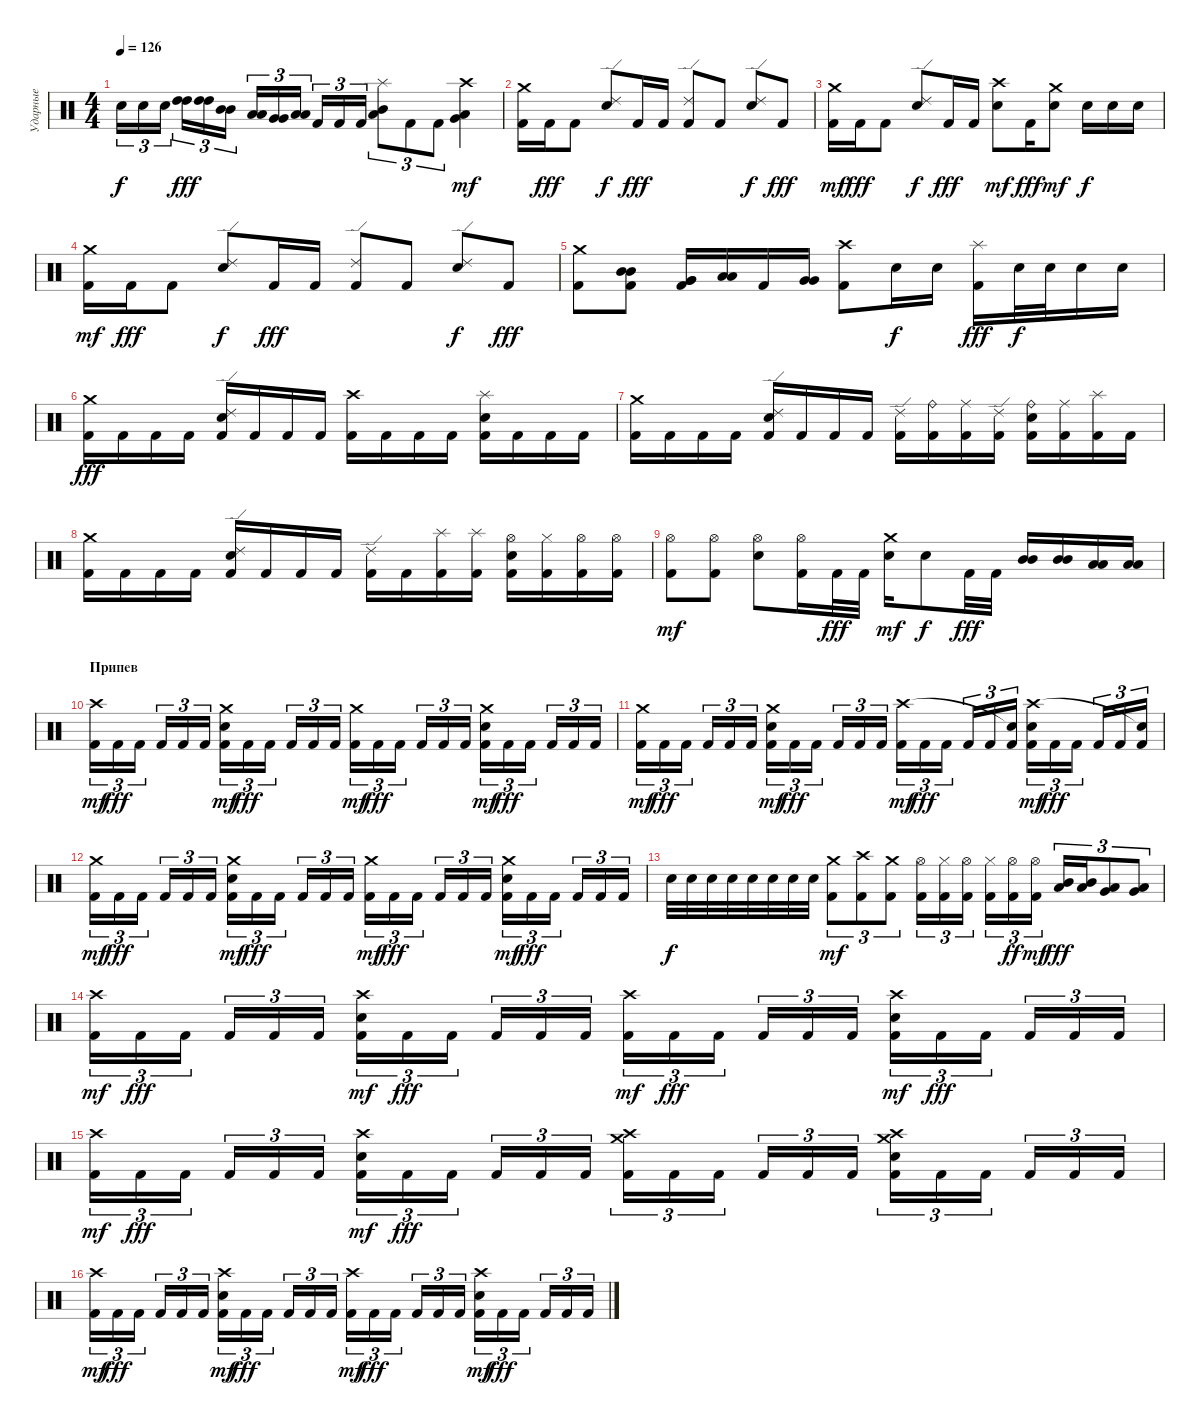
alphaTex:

\track ("Ударные" "Ударные") {instrument percussion}
\staff {score}
\articulation defaults
\ts (4 4)
\tempo 126
\clef neutral
\ks c "Electric Snare (hit)".16{tu (3 2) dy f} "Electric Snare (hit)".16{tu (3 2)} "Electric Snare (hit)".16{tu (3 2)}
("High Tom (hit)" "High Tom (hit)").16{tu (3 2) dy fff} ("High Tom (hit)" "High Tom (hit)").16{tu (3 2)} ("Mid Tom (hit)" "Mid Tom (hit)").16{tu (3 2)} ("Low Tom (hit)" "Low Tom (hit)").16{tu (3 2)} ("Very Low Tom (hit)" "Very Low Tom (hit)").16{tu (3 2)} ("Low Floor Tom (hit)" "Low Floor Tom (hit)").16{tu (3 2)} "Kick (hit) 2".16{tu (3 2)} "Kick (hit) 2".16{tu (3 2)} "Kick (hit) 2".16{tu (3 2)} ("Low Tom (hit)" "Mid Tom (hit)" "Splash (hit)").8{tu (3 2)} "Kick (hit) 2".8{tu (3 2)} "Kick (hit) 2".8{tu (3 2)} ("Very Low Tom (hit)" "Low Tom (hit)" "Crash high (hit)").4{dy mf} |
("Kick (hit) 2" "Crash medium (hit)").16 "Kick (hit) 2".16{dy fff} "Kick (hit) 2".8 ("Electric Snare (hit)" "Ride (edge) 2").8{dy f} "Kick (hit) 2".16{dy fff} "Kick (hit) 2".16 ("Kick (hit) 2" "Ride (edge) 2").8 "Kick (hit) 2".8 ("Electric Snare (hit)" "Ride (edge) 2").8{dy f} "Kick (hit) 2".8{dy fff} |
("Kick (hit) 2" "Crash medium (hit)").16{dy mf} "Kick (hit) 2".16{dy fff} "Kick (hit) 2".8 ("Electric Snare (hit)" "Ride (edge) 2").8{dy f} "Kick (hit) 2".16{dy fff} "Kick (hit) 2".16 ("Crash high (hit)" "Electric Snare (hit)").8{dy mf} "Kick (hit) 2".16{dy fff} ("Crash medium (hit)" "Electric Snare (hit)").8{dy mf} "Electric Snare (hit)".16{dy f} "Electric Snare (hit)".16 "Electric Snare (hit)".16 |
("Kick (hit) 2" "Crash medium (hit)").16{dy mf} "Kick (hit) 2".16{dy fff} "Kick (hit) 2".8 ("Electric Snare (hit)" "Ride (edge) 2").8{dy f} "Kick (hit) 2".16{dy fff} "Kick (hit) 2".16 ("Kick (hit) 2" "Ride (edge) 2").8 "Kick (hit) 2".8 ("Electric Snare (hit)" "Ride (edge) 2").8{dy f} "Kick (hit) 2".8{dy fff} |
("Crash medium (hit)" "Kick (hit) 2").8 ("Mid Tom (hit)" "Mid Tom (hit)" "Kick (hit) 2").8 ("Very Low Tom (hit)" "Very Low Tom (hit)" "Kick (hit) 2").16 ("Low Tom (hit)" "Low Tom (hit)").16 "Kick (hit) 2".16 ("Very Low Tom (hit)" "Very Low Tom (hit)").16 ("Crash high (hit)" "Kick (hit) 2").8 "Electric Snare (hit)".16{dy f} "Electric Snare (hit)".16 ("Splash (hit)" "Kick (hit) 2").16{dy fff} "Electric Snare (hit)".32{dy f} "Electric Snare (hit)".32 "Electric Snare (hit)".16 "Electric Snare (hit)".16 |
("Crash medium (hit)" "Kick (hit) 2").16{dy fff} "Kick (hit) 2".16 "Kick (hit) 2".16 "Kick (hit) 2".16 ("Ride (edge) 2" "Electric Snare (hit)" "Kick (hit) 2").16 "Kick (hit) 2".16 "Kick (hit) 2".16 "Kick (hit) 2".16 ("Crash high (hit)" "Kick (hit) 2").16 "Kick (hit) 2".16 "Kick (hit) 2".16 "Kick (hit) 2".16 ("Splash (hit)" "Electric Snare (hit)" "Kick (hit) 2").16 "Kick (hit) 2".16 "Kick (hit) 2".16 "Kick (hit) 2".16 |
("Crash medium (hit)" "Kick (hit) 2").16 "Kick (hit) 2".16 "Kick (hit) 2".16 "Kick (hit) 2".16 ("Ride (edge) 2" "Electric Snare (hit)" "Kick (hit) 2").16 "Kick (hit) 2".16 "Kick (hit) 2".16 "Kick (hit) 2".16 ("Ride (edge) 2" "Kick (hit) 2").16 ("Ride (bell)" "Kick (hit) 2").16 ("Ride (middle)" "Kick (hit) 2").16 ("Ride (edge) 2" "Kick (hit) 2").16 ("Ride (bell)" "Electric Snare (hit)" "Kick (hit) 2").16 ("Ride (middle)" "Kick (hit) 2").16 ("Splash (hit)" "Kick (hit) 2").16 "Kick (hit) 2".16 |
("Crash medium (hit)" "Kick (hit) 2").16 "Kick (hit) 2".16 "Kick (hit) 2".16 "Kick (hit) 2".16 ("Ride (edge) 2" "Electric Snare (hit)" "Kick (hit) 2").16 "Kick (hit) 2".16 "Kick (hit) 2".16 "Kick (hit) 2".16 ("Ride (edge) 2" "Kick (hit) 2").16 "Kick (hit) 2".16 ("Splash (hit)" "Kick (hit) 2").16 ("Splash (hit)" "Kick (hit) 2").16 ("Hi-Hat (open)" "Electric Snare (hit)" "Kick (hit) 2").16 ("Hi-Hat (closed)" "Kick (hit) 2").16 ("Hi-Hat (open)" "Kick (hit) 2").16 ("Hi-Hat (open)" "Kick (hit) 2").16 |
("Kick (hit) 2" "Hi-Hat (open)").8{dy mf} ("Kick (hit) 2" "Hi-Hat (open)").8 ("Electric Snare (hit)" "Hi-Hat (open)").8 ("Kick (hit) 2" "Hi-Hat (open)").16 "Kick (hit) 2".32{dy fff} "Kick (hit) 2".32 ("Electric Snare (hit)" "Crash medium (hit)").16{dy mf} "Electric Snare (hit)".8{dy f} "Kick (hit) 2".32{dy fff} "Kick (hit) 2".32 ("Mid Tom (hit)" "Mid Tom (hit)").16 ("Mid Tom (hit)" "Mid Tom (hit)").16 ("Low Tom (hit)" "Low Tom (hit)").16 ("Low Tom (hit)" "Low Tom (hit)").16 |
\section ("" "Припев")
("Kick (hit) 2" "Crash high (hit)").16{tu (3 2) dy mf} "Kick (hit) 2".16{tu (3 2) dy fff} "Kick (hit) 2".16{tu (3 2)} "Kick (hit) 2".16{tu (3 2)} "Kick (hit) 2".16{tu (3 2)} "Kick (hit) 2".16{tu (3 2)} ("Kick (hit) 2" "Crash medium (hit)" "Electric Snare (hit)").16{tu (3 2) dy mf} "Kick (hit) 2".16{tu (3 2) dy fff} "Kick (hit) 2".16{tu (3 2)} "Kick (hit) 2".16{tu (3 2)} "Kick (hit) 2".16{tu (3 2)} "Kick (hit) 2".16{tu (3 2)} ("Kick (hit) 2" "Crash medium (hit)").16{tu (3 2) dy mf} "Kick (hit) 2".16{tu (3 2) dy fff} "Kick (hit) 2".16{tu (3 2)} "Kick (hit) 2".16{tu (3 2)} "Kick (hit) 2".16{tu (3 2)} "Kick (hit) 2".16{tu (3 2)} ("Kick (hit) 2" "Crash medium (hit)" "Electric Snare (hit)").16{tu (3 2) dy mf} "Kick (hit) 2".16{tu (3 2) dy fff} "Kick (hit) 2".16{tu (3 2)} "Kick (hit) 2".16{tu (3 2)} "Kick (hit) 2".16{tu (3 2)} "Kick (hit) 2".16{tu (3 2)} |
("Kick (hit) 2" "Crash medium (hit)").16{tu (3 2) dy mf} "Kick (hit) 2".16{tu (3 2) dy fff} "Kick (hit) 2".16{tu (3 2)} "Kick (hit) 2".16{tu (3 2)} "Kick (hit) 2".16{tu (3 2)} "Kick (hit) 2".16{tu (3 2)} ("Kick (hit) 2" "Crash medium (hit)" "Electric Snare (hit)").16{tu (3 2) dy mf} "Kick (hit) 2".16{tu (3 2) dy fff} "Kick (hit) 2".16{tu (3 2)} "Kick (hit) 2".16{tu (3 2)} "Kick (hit) 2".16{tu (3 2)} "Kick (hit) 2".16{tu (3 2)} ("Kick (hit) 2" "Crash high (hit)").16{tu (3 2) dy mf} "Kick (hit) 2".16{tu (3 2) dy fff} "Kick (hit) 2".16{tu (3 2)} "Kick (hit) 2".16{tu (3 2)} "Kick (hit) 2".16{tu (3 2)} ("Kick (hit) 2" "Snare (hit)"{t}).16{tu (3 2)} ("Kick (hit) 2" "Crash high (hit)" "Electric Snare (hit)").16{tu (3 2) dy mf} "Kick (hit) 2".16{tu (3 2) dy fff} "Kick (hit) 2".16{tu (3 2)} "Kick (hit) 2".16{tu (3 2)} "Kick (hit) 2".16{tu (3 2)} ("Kick (hit) 2" "Snare (hit)"{t}).16{tu (3 2)} |
("Kick (hit) 2" "Crash medium (hit)").16{tu (3 2) dy mf} "Kick (hit) 2".16{tu (3 2) dy fff} "Kick (hit) 2".16{tu (3 2)} "Kick (hit) 2".16{tu (3 2)} "Kick (hit) 2".16{tu (3 2)} "Kick (hit) 2".16{tu (3 2)} ("Kick (hit) 2" "Crash medium (hit)" "Electric Snare (hit)").16{tu (3 2) dy mf} "Kick (hit) 2".16{tu (3 2) dy fff} "Kick (hit) 2".16{tu (3 2)} "Kick (hit) 2".16{tu (3 2)} "Kick (hit) 2".16{tu (3 2)} "Kick (hit) 2".16{tu (3 2)} ("Kick (hit) 2" "Crash medium (hit)").16{tu (3 2) dy mf} "Kick (hit) 2".16{tu (3 2) dy fff} "Kick (hit) 2".16{tu (3 2)} "Kick (hit) 2".16{tu (3 2)} "Kick (hit) 2".16{tu (3 2)} "Kick (hit) 2".16{tu (3 2)} ("Kick (hit) 2" "Crash medium (hit)" "Electric Snare (hit)").16{tu (3 2) dy mf} "Kick (hit) 2".16{tu (3 2) dy fff} "Kick (hit) 2".16{tu (3 2)} "Kick (hit) 2".16{tu (3 2)} "Kick (hit) 2".16{tu (3 2)} "Kick (hit) 2".16{tu (3 2)} |
"Electric Snare (hit)".32{dy f} "Electric Snare (hit)".32 "Electric Snare (hit)".32 "Electric Snare (hit)".32 "Electric Snare (hit)".32 "Electric Snare (hit)".32 "Electric Snare (hit)".32 "Electric Snare (hit)".32 ("Kick (hit) 2" "Crash medium (hit)").8{tu (3 2) dy mf} ("Kick (hit) 2" "Crash high (hit)").8{tu (3 2)} ("Kick (hit) 2" "Crash medium (hit)").8{tu (3 2)} ("Kick (hit) 2" "Hi-Hat (open)").16{tu (3 2)} ("Kick (hit) 2" "Hi-Hat (closed)").16{tu (3 2)} ("Kick (hit) 2" "Hi-Hat (open)").16{tu (3 2)} ("Kick (hit) 2" "Hi-Hat (closed)").16{tu (3 2)} ("Kick (hit) 2" "Hi-Hat (open)").16{tu (3 2) dy ff} ("Kick (hit) 2" "Hi-Hat (open)").16{tu (3 2) dy mf} ("Mid Tom (hit)" "Low Tom (hit)").16{tu (3 2) dy fff} ("Mid Tom (hit)" "Low Tom (hit)").16{tu (3 2)} ("Low Tom (hit)" "Very Low Tom (hit)").8{tu (3 2)} ("Very Low Tom (hit)" "Low Floor Tom (hit)").8{tu (3 2)} |
("Kick (hit) 2" "Crash high (hit)").16{tu (3 2) dy mf} "Kick (hit) 2".16{tu (3 2) dy fff} "Kick (hit) 2".16{tu (3 2)} "Kick (hit) 2".16{tu (3 2)} "Kick (hit) 2".16{tu (3 2)} "Kick (hit) 2".16{tu (3 2)} ("Kick (hit) 2" "Crash high (hit)" "Electric Snare (hit)").16{tu (3 2) dy mf} "Kick (hit) 2".16{tu (3 2) dy fff} "Kick (hit) 2".16{tu (3 2)} "Kick (hit) 2".16{tu (3 2)} "Kick (hit) 2".16{tu (3 2)} "Kick (hit) 2".16{tu (3 2)} ("Kick (hit) 2" "Crash high (hit)").16{tu (3 2) dy mf} "Kick (hit) 2".16{tu (3 2) dy fff} "Kick (hit) 2".16{tu (3 2)} "Kick (hit) 2".16{tu (3 2)} "Kick (hit) 2".16{tu (3 2)} "Kick (hit) 2".16{tu (3 2)} ("Kick (hit) 2" "Crash high (hit)" "Electric Snare (hit)").16{tu (3 2) dy mf} "Kick (hit) 2".16{tu (3 2) dy fff} "Kick (hit) 2".16{tu (3 2)} "Kick (hit) 2".16{tu (3 2)} "Kick (hit) 2".16{tu (3 2)} "Kick (hit) 2".16{tu (3 2)} |
("Kick (hit) 2" "Crash high (hit)").16{tu (3 2) dy mf} "Kick (hit) 2".16{tu (3 2) dy fff} "Kick (hit) 2".16{tu (3 2)} "Kick (hit) 2".16{tu (3 2)} "Kick (hit) 2".16{tu (3 2)} "Kick (hit) 2".16{tu (3 2)} ("Kick (hit) 2" "Crash high (hit)" "Electric Snare (hit)").16{tu (3 2) dy mf} "Kick (hit) 2".16{tu (3 2) dy fff} "Kick (hit) 2".16{tu (3 2)} "Kick (hit) 2".16{tu (3 2)} "Kick (hit) 2".16{tu (3 2)} "Kick (hit) 2".16{tu (3 2)} ("Kick (hit) 2" "Crash high (hit)" "Crash medium (hit)").16{tu (3 2)} "Kick (hit) 2".16{tu (3 2)} "Kick (hit) 2".16{tu (3 2)} "Kick (hit) 2".16{tu (3 2)} "Kick (hit) 2".16{tu (3 2)} "Kick (hit) 2".16{tu (3 2)} ("Kick (hit) 2" "Crash high (hit)" "Electric Snare (hit)" "Crash medium (hit)").16{tu (3 2)} "Kick (hit) 2".16{tu (3 2)} "Kick (hit) 2".16{tu (3 2)} "Kick (hit) 2".16{tu (3 2)} "Kick (hit) 2".16{tu (3 2)} "Kick (hit) 2".16{tu (3 2)} |
("Kick (hit) 2" "Crash high (hit)").16{tu (3 2) dy mf} "Kick (hit) 2".16{tu (3 2) dy fff} "Kick (hit) 2".16{tu (3 2)} "Kick (hit) 2".16{tu (3 2)} "Kick (hit) 2".16{tu (3 2)} "Kick (hit) 2".16{tu (3 2)} ("Kick (hit) 2" "Crash high (hit)" "Electric Snare (hit)").16{tu (3 2) dy mf} "Kick (hit) 2".16{tu (3 2) dy fff} "Kick (hit) 2".16{tu (3 2)} "Kick (hit) 2".16{tu (3 2)} "Kick (hit) 2".16{tu (3 2)} "Kick (hit) 2".16{tu (3 2)} ("Kick (hit) 2" "Crash high (hit)").16{tu (3 2) dy mf} "Kick (hit) 2".16{tu (3 2) dy fff} "Kick (hit) 2".16{tu (3 2)} "Kick (hit) 2".16{tu (3 2)} "Kick (hit) 2".16{tu (3 2)} "Kick (hit) 2".16{tu (3 2)} ("Kick (hit) 2" "Crash high (hit)" "Electric Snare (hit)").16{tu (3 2) dy mf} "Kick (hit) 2".16{tu (3 2) dy fff} "Kick (hit) 2".16{tu (3 2)} "Kick (hit) 2".16{tu (3 2)} "Kick (hit) 2".16{tu (3 2)} "Kick (hit) 2".16{tu (3 2)}
